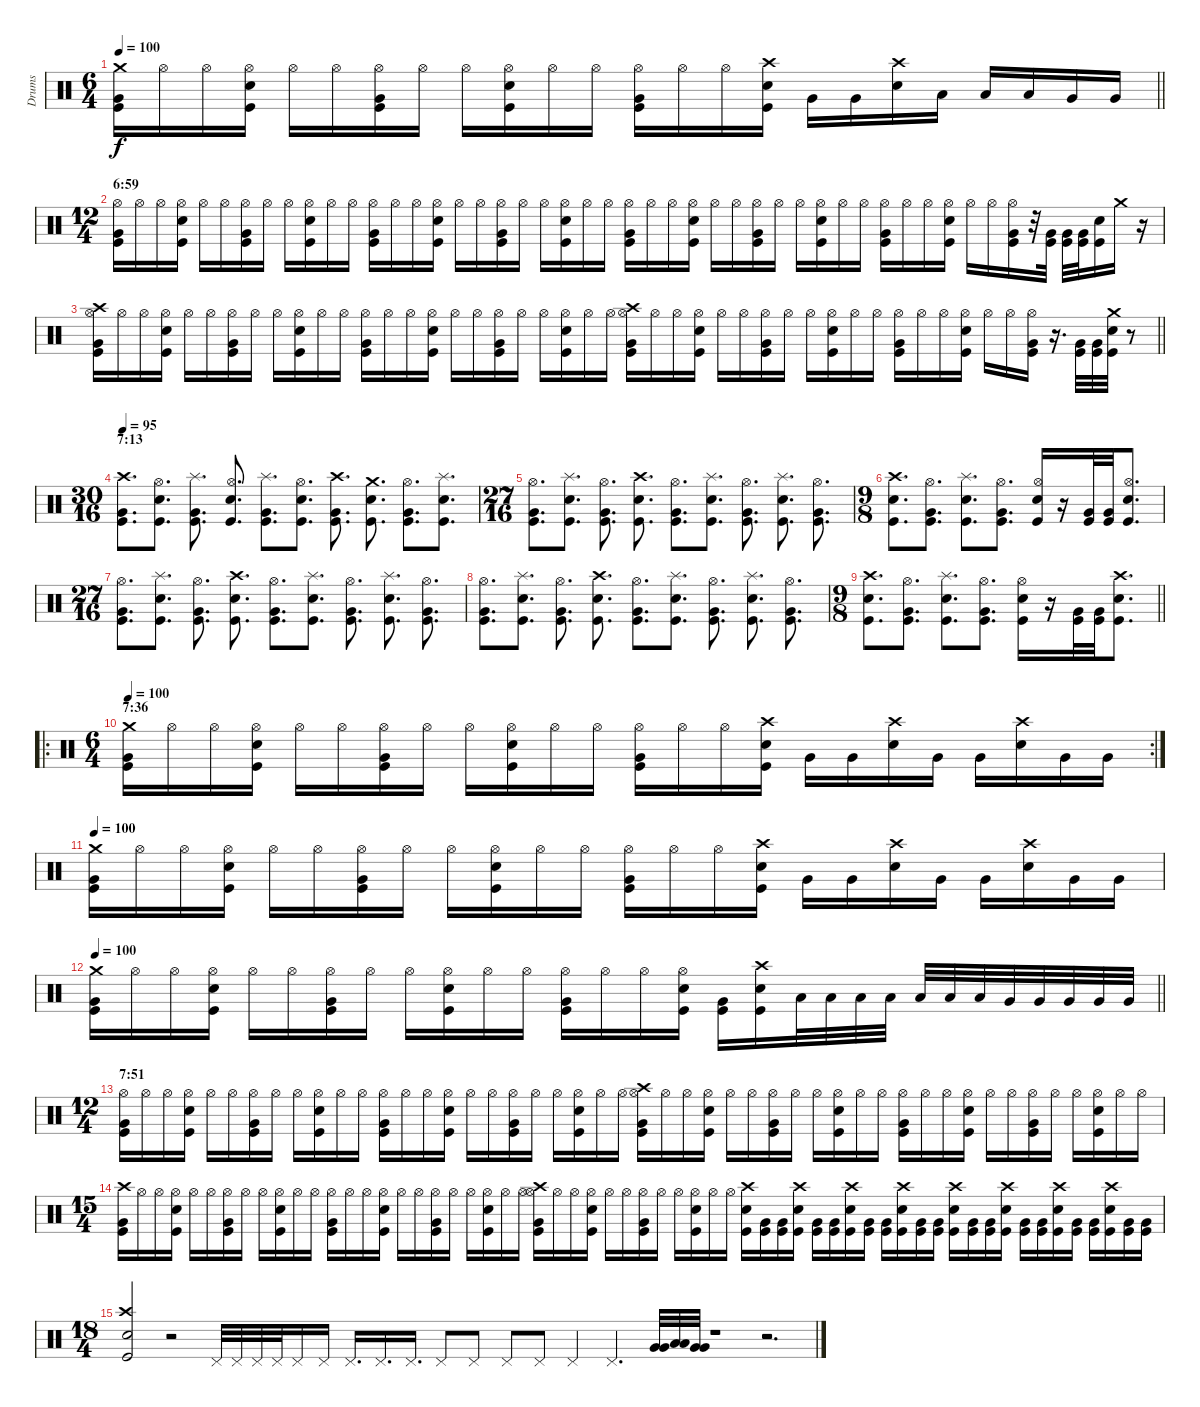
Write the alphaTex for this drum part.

\track ("Drums" "Drums") {instrument percussion}
\staff {score}
\articulation defaults
\ts (6 4)
\tempo 100
\clef neutral
\barLineRight lightlight
\ks c
("Crash medium (hit)" "Very Low Tom (hit)" "Kick (hit)").16{dy f} "Hi-Hat (open)".16 "Hi-Hat (open)".16 ("Hi-Hat (open)" "Snare (hit) 2" "Kick (hit)").16 "Hi-Hat (open)".16 "Hi-Hat (open)".16 ("Hi-Hat (open)" "Very Low Tom (hit)" "Kick (hit)").16 "Hi-Hat (open)".16 "Hi-Hat (open)".16 ("Hi-Hat (open)" "Snare (hit) 2" "Kick (hit)").16 "Hi-Hat (open)".16 "Hi-Hat (open)".16 ("Hi-Hat (open)" "Very Low Tom (hit)" "Kick (hit)").16 "Hi-Hat (open)".16 "Hi-Hat (open)".16 ("Crash high (hit)" "Snare (hit) 2" "Kick (hit)").16 "Very Low Tom (hit)".16 "Very Low Tom (hit)".16 ("Crash high (hit)" "Snare (hit) 2").16 "Low Tom (hit)".16 "Low Tom (hit)".16 "Low Tom (hit)".16 "Very Low Tom (hit)".16 "Very Low Tom (hit)".16 |
\ts (12 4)
\section ("" "6:59")
("Hi-Hat (open)" "Very Low Tom (hit)" "Kick (hit)").16 "Hi-Hat (open)".16 "Hi-Hat (open)".16 ("Hi-Hat (open)" "Snare (hit) 2" "Kick (hit)").16 "Hi-Hat (open)".16 "Hi-Hat (open)".16 ("Hi-Hat (open)" "Very Low Tom (hit)" "Kick (hit)").16 "Hi-Hat (open)".16 "Hi-Hat (open)".16 ("Hi-Hat (open)" "Snare (hit) 2" "Kick (hit)").16 "Hi-Hat (open)".16 "Hi-Hat (open)".16 ("Hi-Hat (open)" "Very Low Tom (hit)" "Kick (hit)").16 "Hi-Hat (open)".16 "Hi-Hat (open)".16 ("Hi-Hat (open)" "Snare (hit) 2" "Kick (hit)").16 "Hi-Hat (open)".16 "Hi-Hat (open)".16 ("Hi-Hat (open)" "Very Low Tom (hit)" "Kick (hit)").16 "Hi-Hat (open)".16 "Hi-Hat (open)".16 ("Hi-Hat (open)" "Snare (hit) 2" "Kick (hit)").16 "Hi-Hat (open)".16 "Hi-Hat (open)".16 ("Hi-Hat (open)" "Very Low Tom (hit)" "Kick (hit)").16 "Hi-Hat (open)".16 "Hi-Hat (open)".16 ("Hi-Hat (open)" "Snare (hit) 2" "Kick (hit)").16 "Hi-Hat (open)".16 "Hi-Hat (open)".16 ("Hi-Hat (open)" "Very Low Tom (hit)" "Kick (hit)").16 "Hi-Hat (open)".16 "Hi-Hat (open)".16 ("Hi-Hat (open)" "Snare (hit) 2" "Kick (hit)").16 "Hi-Hat (open)".16 "Hi-Hat (open)".16 ("Hi-Hat (open)" "Very Low Tom (hit)" "Kick (hit)").16 "Hi-Hat (open)".16 "Hi-Hat (open)".16 ("Hi-Hat (open)" "Snare (hit) 2" "Kick (hit)").16 "Hi-Hat (open)".16 "Hi-Hat (open)".16 ("Hi-Hat (open)" "Very Low Tom (hit)" "Kick (hit)").16 r.32 ("Very Low Tom (hit)" "Kick (hit)").32 ("Very Low Tom (hit)" "Kick (hit)").32 ("Very Low Tom (hit)" "Kick (hit)").32 ("Snare (hit) 2" "Kick (hit)").16 "Crash medium (hit)".16 r.16 |
\barLineRight lightlight
("Hi-Hat (open)" "Crash high (hit)" "Very Low Tom (hit)" "Kick (hit)").16 "Hi-Hat (open)".16 "Hi-Hat (open)".16 ("Hi-Hat (open)" "Snare (hit) 2" "Kick (hit)").16 "Hi-Hat (open)".16 "Hi-Hat (open)".16 ("Hi-Hat (open)" "Very Low Tom (hit)" "Kick (hit)").16 "Hi-Hat (open)".16 "Hi-Hat (open)".16 ("Hi-Hat (open)" "Snare (hit) 2" "Kick (hit)").16 "Hi-Hat (open)".16 "Hi-Hat (open)".16 ("Hi-Hat (open)" "Very Low Tom (hit)" "Kick (hit)").16 "Hi-Hat (open)".16 "Hi-Hat (open)".16 ("Hi-Hat (open)" "Snare (hit) 2" "Kick (hit)").16 "Hi-Hat (open)".16 "Hi-Hat (open)".16 ("Hi-Hat (open)" "Very Low Tom (hit)" "Kick (hit)").16 "Hi-Hat (open)".16 "Hi-Hat (open)".16 ("Hi-Hat (open)" "Snare (hit) 2" "Kick (hit)").16 "Hi-Hat (open)".16 "Hi-Hat (open)".16 ("Hi-Hat (open)" "Crash high (hit)" "Very Low Tom (hit)" "Kick (hit)").16 "Hi-Hat (open)".16 "Hi-Hat (open)".16 ("Hi-Hat (open)" "Snare (hit) 2" "Kick (hit)").16 "Hi-Hat (open)".16 "Hi-Hat (open)".16 ("Hi-Hat (open)" "Very Low Tom (hit)" "Kick (hit)").16 "Hi-Hat (open)".16 "Hi-Hat (open)".16 ("Hi-Hat (open)" "Snare (hit) 2" "Kick (hit)").16 "Hi-Hat (open)".16 "Hi-Hat (open)".16 ("Hi-Hat (open)" "Very Low Tom (hit)" "Kick (hit)").16 "Hi-Hat (open)".16 "Hi-Hat (open)".16 ("Hi-Hat (open)" "Snare (hit) 2" "Kick (hit)").16 "Hi-Hat (open)".16 "Hi-Hat (open)".16 ("Hi-Hat (open)" "Very Low Tom (hit)" "Kick (hit)").16 r.16{d} ("Very Low Tom (hit)" "Kick (hit)").32 ("Very Low Tom (hit)" "Kick (hit)").32 ("Crash medium (hit)" "Snare (hit) 2" "Kick (hit)").32 r.8 |
\ts (30 16)
\section ("" "7:13")
\tempo 95
("Crash high (hit)" "Very Low Tom (hit)" "Kick (hit)").8{d} ("Hi-Hat (open)" "Snare (hit) 2" "Kick (hit)").8{d} ("Splash (hit)" "Very Low Tom (hit)" "Kick (hit)").8{d} ("Hi-Hat (open)" "Snare (hit) 2" "Kick (hit)").8{d} ("Splash (hit)" "Very Low Tom (hit)" "Kick (hit)").8{d} ("Hi-Hat (open)" "Snare (hit) 2" "Kick (hit)").8{d} ("Crash high (hit)" "Very Low Tom (hit)" "Kick (hit)").8{d} ("Crash medium (hit)" "Snare (hit) 2" "Kick (hit)").8{d} ("Hi-Hat (open)" "Very Low Tom (hit)" "Kick (hit)").8{d} ("Splash (hit)" "Snare (hit) 2" "Kick (hit)").8{d} |
\ts (27 16)
("Hi-Hat (open)" "Very Low Tom (hit)" "Kick (hit)").8{d} ("Splash (hit)" "Snare (hit) 2" "Kick (hit)").8{d} ("Hi-Hat (open)" "Very Low Tom (hit)" "Kick (hit)").8{d} ("Crash high (hit)" "Snare (hit) 2" "Kick (hit)").8{d} ("Hi-Hat (open)" "Very Low Tom (hit)" "Kick (hit)").8{d} ("Splash (hit)" "Snare (hit) 2" "Kick (hit)").8{d} ("Hi-Hat (open)" "Very Low Tom (hit)" "Kick (hit)").8{d} ("Splash (hit)" "Snare (hit) 2" "Kick (hit)").8{d} ("Hi-Hat (open)" "Very Low Tom (hit)" "Kick (hit)").8{d} |
\ts (9 8)
("Crash high (hit)" "Snare (hit) 2" "Kick (hit)").8{d} ("Hi-Hat (open)" "Very Low Tom (hit)" "Kick (hit)").8{d} ("Splash (hit)" "Snare (hit) 2" "Kick (hit)").8{d} ("Hi-Hat (open)" "Very Low Tom (hit)" "Kick (hit)").8{d} ("Hi-Hat (open)" "Snare (hit) 2" "Kick (hit)").16 r.16 ("Very Low Tom (hit)" "Kick (hit)").32 ("Very Low Tom (hit)" "Kick (hit)").32 ("Hi-Hat (open)" "Snare (hit) 2" "Kick (hit)").8{d} |
\ts (27 16)
("Hi-Hat (open)" "Very Low Tom (hit)" "Kick (hit)").8{d} ("Splash (hit)" "Snare (hit) 2" "Kick (hit)").8{d} ("Hi-Hat (open)" "Very Low Tom (hit)" "Kick (hit)").8{d} ("Crash high (hit)" "Snare (hit) 2" "Kick (hit)").8{d} ("Hi-Hat (open)" "Very Low Tom (hit)" "Kick (hit)").8{d} ("Splash (hit)" "Snare (hit) 2" "Kick (hit)").8{d} ("Hi-Hat (open)" "Very Low Tom (hit)" "Kick (hit)").8{d} ("Splash (hit)" "Snare (hit) 2" "Kick (hit)").8{d} ("Hi-Hat (open)" "Very Low Tom (hit)" "Kick (hit)").8{d} |
("Hi-Hat (open)" "Very Low Tom (hit)" "Kick (hit)").8{d} ("Splash (hit)" "Snare (hit) 2" "Kick (hit)").8{d} ("Hi-Hat (open)" "Very Low Tom (hit)" "Kick (hit)").8{d} ("Crash high (hit)" "Snare (hit) 2" "Kick (hit)").8{d} ("Hi-Hat (open)" "Very Low Tom (hit)" "Kick (hit)").8{d} ("Splash (hit)" "Snare (hit) 2" "Kick (hit)").8{d} ("Hi-Hat (open)" "Very Low Tom (hit)" "Kick (hit)").8{d} ("Splash (hit)" "Snare (hit) 2" "Kick (hit)").8{d} ("Hi-Hat (open)" "Very Low Tom (hit)" "Kick (hit)").8{d} |
\ts (9 8)
\barLineRight lightlight
("Crash high (hit)" "Snare (hit) 2" "Kick (hit)").8{d} ("Hi-Hat (open)" "Very Low Tom (hit)" "Kick (hit)").8{d} ("Splash (hit)" "Snare (hit) 2" "Kick (hit)").8{d} ("Hi-Hat (open)" "Very Low Tom (hit)" "Kick (hit)").8{d} ("Hi-Hat (open)" "Snare (hit) 2" "Kick (hit)").16 r.16 ("Very Low Tom (hit)" "Kick (hit)").32 ("Very Low Tom (hit)" "Kick (hit)").32 ("Crash high (hit)" "Snare (hit) 2" "Kick (hit)").8{d} |
\ro
\rc 2
\ts (6 4)
\section ("" "7:36")
\tempo 100
("Crash medium (hit)" "Very Low Tom (hit)" "Kick (hit)").16 "Hi-Hat (open)".16 "Hi-Hat (open)".16 ("Hi-Hat (open)" "Snare (hit) 2" "Kick (hit)").16 "Hi-Hat (open)".16 "Hi-Hat (open)".16 ("Hi-Hat (open)" "Very Low Tom (hit)" "Kick (hit)").16 "Hi-Hat (open)".16 "Hi-Hat (open)".16 ("Hi-Hat (open)" "Snare (hit) 2" "Kick (hit)").16 "Hi-Hat (open)".16 "Hi-Hat (open)".16 ("Hi-Hat (open)" "Very Low Tom (hit)" "Kick (hit)").16 "Hi-Hat (open)".16 "Hi-Hat (open)".16 ("Crash high (hit)" "Snare (hit) 2" "Kick (hit)").16 "Very Low Tom (hit)".16 "Very Low Tom (hit)".16 ("Crash high (hit)" "Snare (hit) 2").16 "Very Low Tom (hit)".16 "Very Low Tom (hit)".16 ("Crash high (hit)" "Snare (hit) 2").16 "Very Low Tom (hit)".16 "Very Low Tom (hit)".16 |
\tempo 100
("Crash medium (hit)" "Very Low Tom (hit)" "Kick (hit)").16 "Hi-Hat (open)".16 "Hi-Hat (open)".16 ("Hi-Hat (open)" "Snare (hit) 2" "Kick (hit)").16 "Hi-Hat (open)".16 "Hi-Hat (open)".16 ("Hi-Hat (open)" "Very Low Tom (hit)" "Kick (hit)").16 "Hi-Hat (open)".16 "Hi-Hat (open)".16 ("Hi-Hat (open)" "Snare (hit) 2" "Kick (hit)").16 "Hi-Hat (open)".16 "Hi-Hat (open)".16 ("Hi-Hat (open)" "Very Low Tom (hit)" "Kick (hit)").16 "Hi-Hat (open)".16 "Hi-Hat (open)".16 ("Crash high (hit)" "Snare (hit) 2" "Kick (hit)").16 "Very Low Tom (hit)".16 "Very Low Tom (hit)".16 ("Crash high (hit)" "Snare (hit) 2").16 "Very Low Tom (hit)".16 "Very Low Tom (hit)".16 ("Crash high (hit)" "Snare (hit) 2").16 "Very Low Tom (hit)".16 "Very Low Tom (hit)".16 |
\tempo 100
\barLineRight lightlight
("Crash medium (hit)" "Very Low Tom (hit)" "Kick (hit)").16 "Hi-Hat (open)".16 "Hi-Hat (open)".16 ("Hi-Hat (open)" "Snare (hit) 2" "Kick (hit)").16 "Hi-Hat (open)".16 "Hi-Hat (open)".16 ("Hi-Hat (open)" "Very Low Tom (hit)" "Kick (hit)").16 "Hi-Hat (open)".16 "Hi-Hat (open)".16 ("Hi-Hat (open)" "Snare (hit) 2" "Kick (hit)").16 "Hi-Hat (open)".16 "Hi-Hat (open)".16 ("Hi-Hat (open)" "Very Low Tom (hit)" "Kick (hit)").16 "Hi-Hat (open)".16 "Hi-Hat (open)".16 ("Hi-Hat (open)" "Snare (hit) 2" "Kick (hit)").16 ("Very Low Tom (hit)" "Kick (hit)").16 ("Crash high (hit)" "Snare (hit) 2" "Kick (hit)").16 "Low Tom (hit)".32 "Low Tom (hit)".32 "Low Tom (hit)".32 "Low Tom (hit)".32 "Low Tom (hit)".32 "Low Tom (hit)".32 "Low Tom (hit)".32 "Very Low Tom (hit)".32 "Very Low Tom (hit)".32 "Very Low Tom (hit)".32 "Very Low Tom (hit)".32 "Very Low Tom (hit)".32 |
\ts (12 4)
\section ("" "7:51")
("Hi-Hat (open)" "Very Low Tom (hit)" "Kick (hit)").16 "Hi-Hat (open)".16 "Hi-Hat (open)".16 ("Hi-Hat (open)" "Snare (hit) 2" "Kick (hit)").16 "Hi-Hat (open)".16 "Hi-Hat (open)".16 ("Hi-Hat (open)" "Very Low Tom (hit)" "Kick (hit)").16 "Hi-Hat (open)".16 "Hi-Hat (open)".16 ("Hi-Hat (open)" "Snare (hit) 2" "Kick (hit)").16 "Hi-Hat (open)".16 "Hi-Hat (open)".16 ("Hi-Hat (open)" "Very Low Tom (hit)" "Kick (hit)").16 "Hi-Hat (open)".16 "Hi-Hat (open)".16 ("Hi-Hat (open)" "Snare (hit) 2" "Kick (hit)").16 "Hi-Hat (open)".16 "Hi-Hat (open)".16 ("Hi-Hat (open)" "Very Low Tom (hit)" "Kick (hit)").16 "Hi-Hat (open)".16 "Hi-Hat (open)".16 ("Hi-Hat (open)" "Snare (hit) 2" "Kick (hit)").16 "Hi-Hat (open)".16 "Hi-Hat (open)".16 ("Hi-Hat (open)" "Crash high (hit)" "Very Low Tom (hit)" "Kick (hit)").16 "Hi-Hat (open)".16 "Hi-Hat (open)".16 ("Hi-Hat (open)" "Snare (hit) 2" "Kick (hit)").16 "Hi-Hat (open)".16 "Hi-Hat (open)".16 ("Hi-Hat (open)" "Very Low Tom (hit)" "Kick (hit)").16 "Hi-Hat (open)".16 "Hi-Hat (open)".16 ("Hi-Hat (open)" "Snare (hit) 2" "Kick (hit)").16 "Hi-Hat (open)".16 "Hi-Hat (open)".16 ("Hi-Hat (open)" "Very Low Tom (hit)" "Kick (hit)").16 "Hi-Hat (open)".16 "Hi-Hat (open)".16 ("Hi-Hat (open)" "Snare (hit) 2" "Kick (hit)").16 "Hi-Hat (open)".16 "Hi-Hat (open)".16 ("Hi-Hat (open)" "Very Low Tom (hit)" "Kick (hit)").16 "Hi-Hat (open)".16 "Hi-Hat (open)".16 ("Hi-Hat (open)" "Snare (hit) 2" "Kick (hit)").16 "Hi-Hat (open)".16 "Hi-Hat (open)".16 |
\ts (15 4)
("Crash high (hit)" "Very Low Tom (hit)" "Kick (hit)").16 "Hi-Hat (open)".16 "Hi-Hat (open)".16 ("Hi-Hat (open)" "Snare (hit) 2" "Kick (hit)").16 "Hi-Hat (open)".16 "Hi-Hat (open)".16 ("Hi-Hat (open)" "Very Low Tom (hit)" "Kick (hit)").16 "Hi-Hat (open)".16 "Hi-Hat (open)".16 ("Hi-Hat (open)" "Snare (hit) 2" "Kick (hit)").16 "Hi-Hat (open)".16 "Hi-Hat (open)".16 ("Hi-Hat (open)" "Very Low Tom (hit)" "Kick (hit)").16 "Hi-Hat (open)".16 "Hi-Hat (open)".16 ("Hi-Hat (open)" "Snare (hit) 2" "Kick (hit)").16 "Hi-Hat (open)".16 "Hi-Hat (open)".16 ("Hi-Hat (open)" "Very Low Tom (hit)" "Kick (hit)").16 "Hi-Hat (open)".16 "Hi-Hat (open)".16 ("Hi-Hat (open)" "Snare (hit) 2" "Kick (hit)").16 "Hi-Hat (open)".16 "Hi-Hat (open)".16 ("Hi-Hat (open)" "Crash high (hit)" "Very Low Tom (hit)" "Kick (hit)").16 "Hi-Hat (open)".16 "Hi-Hat (open)".16 ("Hi-Hat (open)" "Snare (hit) 2" "Kick (hit)").16 "Hi-Hat (open)".16 "Hi-Hat (open)".16 ("Hi-Hat (open)" "Very Low Tom (hit)" "Kick (hit)").16 "Hi-Hat (open)".16 "Hi-Hat (open)".16 ("Hi-Hat (open)" "Snare (hit) 2" "Kick (hit)").16 "Hi-Hat (open)".16 "Hi-Hat (open)".16 ("Crash high (hit)" "Snare (hit) 2" "Kick (hit)").16 ("Very Low Tom (hit)" "Kick (hit)").16 ("Very Low Tom (hit)" "Kick (hit)").16 ("Crash high (hit)" "Snare (hit) 2" "Kick (hit)").16 ("Very Low Tom (hit)" "Kick (hit)").16 ("Very Low Tom (hit)" "Kick (hit)").16 ("Crash high (hit)" "Snare (hit) 2" "Kick (hit)").16 ("Very Low Tom (hit)" "Kick (hit)").16 ("Very Low Tom (hit)" "Kick (hit)").16 ("Crash high (hit)" "Snare (hit) 2" "Kick (hit)").16 ("Very Low Tom (hit)" "Kick (hit)").16 ("Very Low Tom (hit)" "Kick (hit)").16 ("Crash high (hit)" "Snare (hit) 2" "Kick (hit)").16 ("Very Low Tom (hit)" "Kick (hit)").16 ("Very Low Tom (hit)" "Kick (hit)").16 ("Crash high (hit)" "Snare (hit) 2" "Kick (hit)").16 ("Very Low Tom (hit)" "Kick (hit)").16 ("Very Low Tom (hit)" "Kick (hit)").16 ("Crash high (hit)" "Snare (hit) 2" "Kick (hit)").16 ("Very Low Tom (hit)" "Kick (hit)").16 ("Very Low Tom (hit)" "Kick (hit)").16 ("Crash high (hit)" "Snare (hit) 2" "Kick (hit)").16 ("Very Low Tom (hit)" "Kick (hit)").16 ("Very Low Tom (hit)" "Kick (hit)").16 |
\ts (18 4)
("Crash high (hit)" "Electric Snare (hit)" "Kick (hit)").2 r.2 "Pedal Hi-Hat (hit)".32 "Pedal Hi-Hat (hit)".32 "Pedal Hi-Hat (hit)".32 "Pedal Hi-Hat (hit)".32 "Pedal Hi-Hat (hit)".16 "Pedal Hi-Hat (hit)".16 "Pedal Hi-Hat (hit)".16{d} "Pedal Hi-Hat (hit)".16{d} "Pedal Hi-Hat (hit)".16{d} "Pedal Hi-Hat (hit)".8 "Pedal Hi-Hat (hit)".8 "Pedal Hi-Hat (hit)".8 "Pedal Hi-Hat (hit)".8 "Pedal Hi-Hat (hit)".4 "Pedal Hi-Hat (hit)".4{d} ("Very Low Tom (hit)" "Very Low Tom (hit)").32 ("Low Tom (hit)" "Low Tom (hit)").32 ("Very Low Tom (hit)" "Very Low Tom (hit)").32 r.1 r.2{d}
